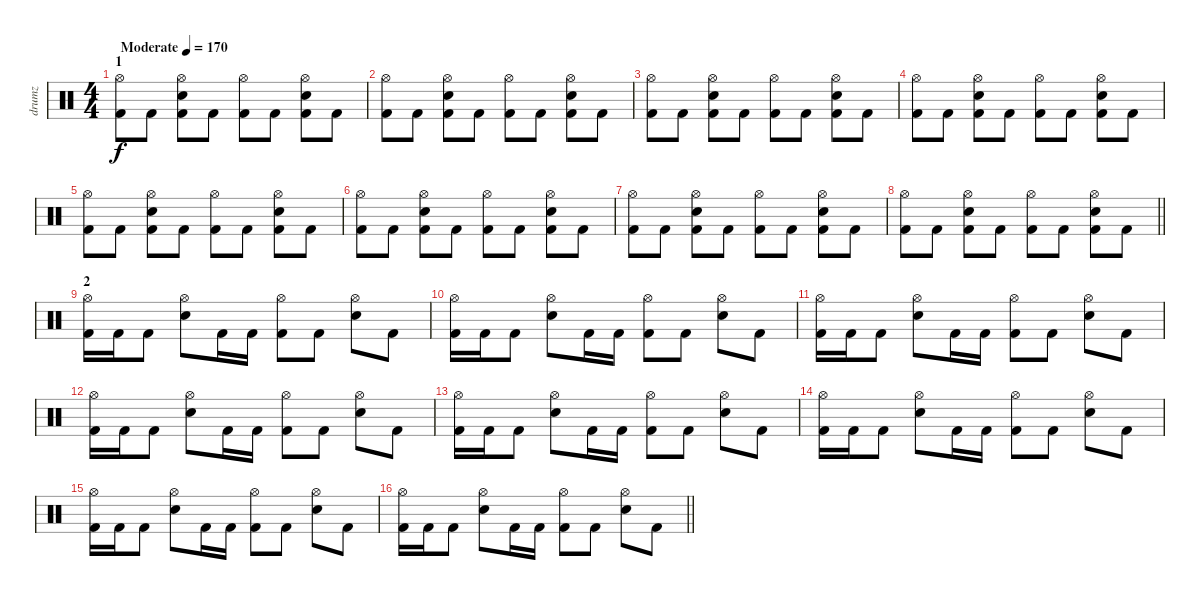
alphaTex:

\track ("drumz" "drumz") {instrument percussion}
\staff {score}
\articulation defaults
\ts (4 4)
\section ("" "1")
\tempo (170 "Moderate")
\clef neutral
\ks c
("Hi-Hat (open)" "Kick (hit) 2").8{dy f} "Kick (hit) 2".8 ("Hi-Hat (open)" "Electric Snare (hit)" "Kick (hit) 2").8 "Kick (hit) 2".8 ("Hi-Hat (open)" "Kick (hit) 2").8 "Kick (hit) 2".8 ("Hi-Hat (open)" "Electric Snare (hit)" "Kick (hit) 2").8 "Kick (hit) 2".8 |
("Hi-Hat (open)" "Kick (hit) 2").8 "Kick (hit) 2".8 ("Hi-Hat (open)" "Electric Snare (hit)" "Kick (hit) 2").8 "Kick (hit) 2".8 ("Hi-Hat (open)" "Kick (hit) 2").8 "Kick (hit) 2".8 ("Hi-Hat (open)" "Electric Snare (hit)" "Kick (hit) 2").8 "Kick (hit) 2".8 |
("Hi-Hat (open)" "Kick (hit) 2").8 "Kick (hit) 2".8 ("Hi-Hat (open)" "Electric Snare (hit)" "Kick (hit) 2").8 "Kick (hit) 2".8 ("Hi-Hat (open)" "Kick (hit) 2").8 "Kick (hit) 2".8 ("Hi-Hat (open)" "Electric Snare (hit)" "Kick (hit) 2").8 "Kick (hit) 2".8 |
("Hi-Hat (open)" "Kick (hit) 2").8 "Kick (hit) 2".8 ("Hi-Hat (open)" "Electric Snare (hit)" "Kick (hit) 2").8 "Kick (hit) 2".8 ("Hi-Hat (open)" "Kick (hit) 2").8 "Kick (hit) 2".8 ("Hi-Hat (open)" "Electric Snare (hit)" "Kick (hit) 2").8 "Kick (hit) 2".8 |
("Hi-Hat (open)" "Kick (hit) 2").8 "Kick (hit) 2".8 ("Hi-Hat (open)" "Electric Snare (hit)" "Kick (hit) 2").8 "Kick (hit) 2".8 ("Hi-Hat (open)" "Kick (hit) 2").8 "Kick (hit) 2".8 ("Hi-Hat (open)" "Electric Snare (hit)" "Kick (hit) 2").8 "Kick (hit) 2".8 |
("Hi-Hat (open)" "Kick (hit) 2").8 "Kick (hit) 2".8 ("Hi-Hat (open)" "Electric Snare (hit)" "Kick (hit) 2").8 "Kick (hit) 2".8 ("Hi-Hat (open)" "Kick (hit) 2").8 "Kick (hit) 2".8 ("Hi-Hat (open)" "Electric Snare (hit)" "Kick (hit) 2").8 "Kick (hit) 2".8 |
("Hi-Hat (open)" "Kick (hit) 2").8 "Kick (hit) 2".8 ("Hi-Hat (open)" "Electric Snare (hit)" "Kick (hit) 2").8 "Kick (hit) 2".8 ("Hi-Hat (open)" "Kick (hit) 2").8 "Kick (hit) 2".8 ("Hi-Hat (open)" "Electric Snare (hit)" "Kick (hit) 2").8 "Kick (hit) 2".8 |
\barLineRight lightlight
("Hi-Hat (open)" "Kick (hit) 2").8 "Kick (hit) 2".8 ("Hi-Hat (open)" "Electric Snare (hit)" "Kick (hit) 2").8 "Kick (hit) 2".8 ("Hi-Hat (open)" "Kick (hit) 2").8 "Kick (hit) 2".8 ("Hi-Hat (open)" "Electric Snare (hit)" "Kick (hit) 2").8 "Kick (hit) 2".8 |
\section ("" "2")
("Hi-Hat (open)" "Kick (hit) 2").16 "Kick (hit) 2".16 "Kick (hit) 2".8 ("Hi-Hat (open)" "Electric Snare (hit)").8 "Kick (hit) 2".16 "Kick (hit) 2".16 ("Hi-Hat (open)" "Kick (hit) 2").8 "Kick (hit) 2".8 ("Hi-Hat (open)" "Electric Snare (hit)").8 "Kick (hit) 2".8 |
("Hi-Hat (open)" "Kick (hit) 2").16 "Kick (hit) 2".16 "Kick (hit) 2".8 ("Hi-Hat (open)" "Electric Snare (hit)").8 "Kick (hit) 2".16 "Kick (hit) 2".16 ("Hi-Hat (open)" "Kick (hit) 2").8 "Kick (hit) 2".8 ("Hi-Hat (open)" "Electric Snare (hit)").8 "Kick (hit) 2".8 |
("Hi-Hat (open)" "Kick (hit) 2").16 "Kick (hit) 2".16 "Kick (hit) 2".8 ("Hi-Hat (open)" "Electric Snare (hit)").8 "Kick (hit) 2".16 "Kick (hit) 2".16 ("Hi-Hat (open)" "Kick (hit) 2").8 "Kick (hit) 2".8 ("Hi-Hat (open)" "Electric Snare (hit)").8 "Kick (hit) 2".8 |
("Hi-Hat (open)" "Kick (hit) 2").16 "Kick (hit) 2".16 "Kick (hit) 2".8 ("Hi-Hat (open)" "Electric Snare (hit)").8 "Kick (hit) 2".16 "Kick (hit) 2".16 ("Hi-Hat (open)" "Kick (hit) 2").8 "Kick (hit) 2".8 ("Hi-Hat (open)" "Electric Snare (hit)").8 "Kick (hit) 2".8 |
("Hi-Hat (open)" "Kick (hit) 2").16 "Kick (hit) 2".16 "Kick (hit) 2".8 ("Hi-Hat (open)" "Electric Snare (hit)").8 "Kick (hit) 2".16 "Kick (hit) 2".16 ("Hi-Hat (open)" "Kick (hit) 2").8 "Kick (hit) 2".8 ("Hi-Hat (open)" "Electric Snare (hit)").8 "Kick (hit) 2".8 |
("Hi-Hat (open)" "Kick (hit) 2").16 "Kick (hit) 2".16 "Kick (hit) 2".8 ("Hi-Hat (open)" "Electric Snare (hit)").8 "Kick (hit) 2".16 "Kick (hit) 2".16 ("Hi-Hat (open)" "Kick (hit) 2").8 "Kick (hit) 2".8 ("Hi-Hat (open)" "Electric Snare (hit)").8 "Kick (hit) 2".8 |
("Hi-Hat (open)" "Kick (hit) 2").16 "Kick (hit) 2".16 "Kick (hit) 2".8 ("Hi-Hat (open)" "Electric Snare (hit)").8 "Kick (hit) 2".16 "Kick (hit) 2".16 ("Hi-Hat (open)" "Kick (hit) 2").8 "Kick (hit) 2".8 ("Hi-Hat (open)" "Electric Snare (hit)").8 "Kick (hit) 2".8 |
\barLineRight lightlight
("Hi-Hat (open)" "Kick (hit) 2").16 "Kick (hit) 2".16 "Kick (hit) 2".8 ("Hi-Hat (open)" "Electric Snare (hit)").8 "Kick (hit) 2".16 "Kick (hit) 2".16 ("Hi-Hat (open)" "Kick (hit) 2").8 "Kick (hit) 2".8 ("Hi-Hat (open)" "Electric Snare (hit)").8 "Kick (hit) 2".8
